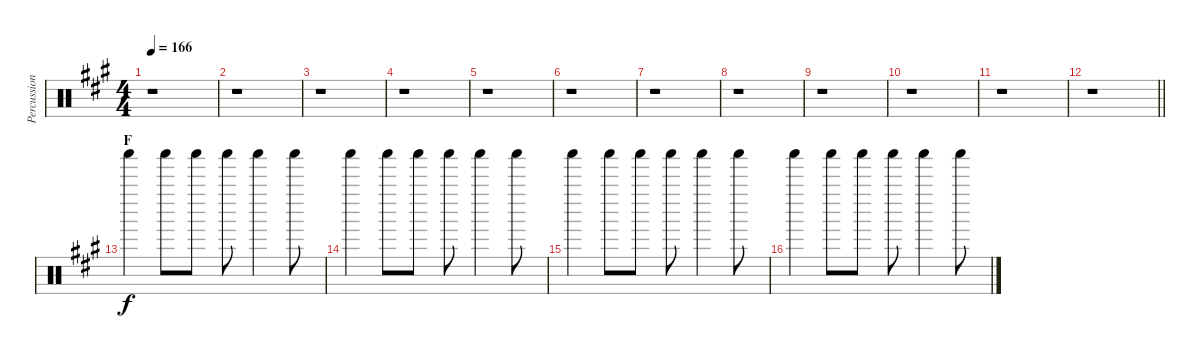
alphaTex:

\track ("Percussion III" "Percussion") {instrument percussion}
\staff {score}
\articulation defaults
\ts (4 4)
\tempo 166
\clef neutral
\ks a
r.1{dy f} |
r.1 |
r.1 |
r.1 |
r.1 |
r.1 |
r.1 |
r.1 |
r.1 |
r.1 |
r.1 |
\barLineRight lightlight
r.1 |
\section ("" "F")
"Shaker (hit)".4 "Shaker (hit)".8 "Shaker (hit)".8 "Shaker (hit)".8 "Shaker (hit)".4 "Shaker (hit)".8 |
"Shaker (hit)".4 "Shaker (hit)".8 "Shaker (hit)".8 "Shaker (hit)".8 "Shaker (hit)".4 "Shaker (hit)".8 |
"Shaker (hit)".4 "Shaker (hit)".8 "Shaker (hit)".8 "Shaker (hit)".8 "Shaker (hit)".4 "Shaker (hit)".8 |
"Shaker (hit)".4 "Shaker (hit)".8 "Shaker (hit)".8 "Shaker (hit)".8 "Shaker (hit)".4 "Shaker (hit)".8
